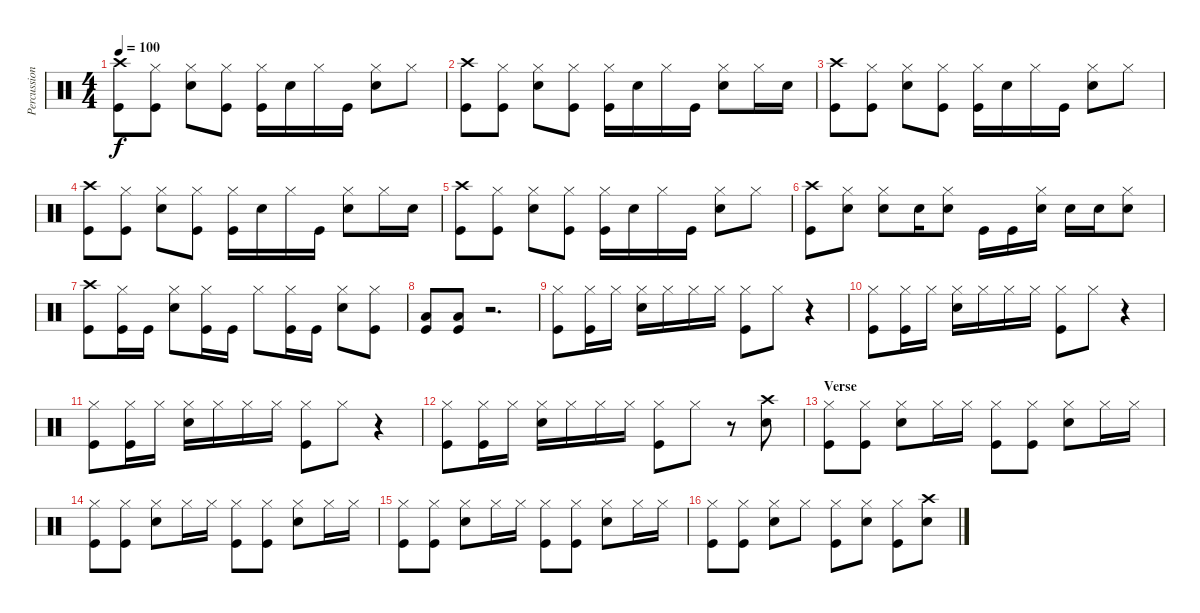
\track ("Percussion" "Percussion") {instrument percussion}
\staff {score}
\articulation defaults
\ts (4 4)
\tempo 100
\clef neutral
\ks c
("Crash high (hit)" "Kick (hit)").8{dy f} ("Hi-Hat (closed)" "Kick (hit)").8 ("Hi-Hat (closed)" "Snare (hit) 2").8 ("Hi-Hat (closed)" "Kick (hit)").8 ("Hi-Hat (closed)" "Kick (hit)").16 "Snare (hit) 2".16 "Hi-Hat (closed)".16 "Kick (hit)".16 ("Hi-Hat (closed)" "Snare (hit) 2").8 "Hi-Hat (closed)".8 |
("Crash high (hit)" "Kick (hit)").8 ("Hi-Hat (closed)" "Kick (hit)").8 ("Hi-Hat (closed)" "Snare (hit) 2").8 ("Hi-Hat (closed)" "Kick (hit)").8 ("Hi-Hat (closed)" "Kick (hit)").16 "Snare (hit) 2".16 "Hi-Hat (closed)".16 "Kick (hit)".16 ("Hi-Hat (closed)" "Snare (hit) 2").8 "Hi-Hat (closed)".16 "Snare (hit) 2".16 |
("Crash high (hit)" "Kick (hit)").8 ("Hi-Hat (closed)" "Kick (hit)").8 ("Hi-Hat (closed)" "Snare (hit) 2").8 ("Hi-Hat (closed)" "Kick (hit)").8 ("Hi-Hat (closed)" "Kick (hit)").16 "Snare (hit) 2".16 "Hi-Hat (closed)".16 "Kick (hit)".16 ("Hi-Hat (closed)" "Snare (hit) 2").8 "Hi-Hat (closed)".8 |
("Crash high (hit)" "Kick (hit)").8 ("Hi-Hat (closed)" "Kick (hit)").8 ("Hi-Hat (closed)" "Snare (hit) 2").8 ("Hi-Hat (closed)" "Kick (hit)").8 ("Hi-Hat (closed)" "Kick (hit)").16 "Snare (hit) 2".16 "Hi-Hat (closed)".16 "Kick (hit)".16 ("Hi-Hat (closed)" "Snare (hit) 2").8 "Hi-Hat (closed)".16 "Snare (hit) 2".16 |
("Crash high (hit)" "Kick (hit)").8 ("Hi-Hat (closed)" "Kick (hit)").8 ("Hi-Hat (closed)" "Snare (hit) 2").8 ("Hi-Hat (closed)" "Kick (hit)").8 ("Hi-Hat (closed)" "Kick (hit)").16 "Snare (hit) 2".16 "Hi-Hat (closed)".16 "Kick (hit)".16 ("Hi-Hat (closed)" "Snare (hit) 2").8 "Hi-Hat (closed)".8 |
("Crash high (hit)" "Kick (hit)").8 ("Hi-Hat (closed)" "Snare (hit) 2").8 ("Hi-Hat (closed)" "Snare (hit) 2").8 "Snare (hit) 2".16 ("Hi-Hat (closed)" "Snare (hit) 2").8 "Kick (hit)".16 "Kick (hit)".16 ("Hi-Hat (closed)" "Electric Snare (hit)").16 "Electric Snare (hit)".16 "Snare (hit) 2".16 ("Hi-Hat (closed)" "Electric Snare (hit)").8 |
("Crash high (hit)" "Kick (hit)").8 ("Hi-Hat (closed)" "Kick (hit)").16 "Kick (hit)".16 ("Hi-Hat (closed)" "Snare (hit) 2").8 ("Hi-Hat (closed)" "Kick (hit)").16 "Kick (hit)".16 "Hi-Hat (closed)".8 ("Hi-Hat (closed)" "Kick (hit)").16 "Kick (hit)".16 ("Hi-Hat (closed)" "Snare (hit) 2").8 ("Hi-Hat (closed)" "Kick (hit)").8 |
("Low Tom (hit)" "Kick (hit)").8 ("Low Tom (hit)" "Kick (hit)").8 r.2{d} |
("Hi-Hat (closed)" "Kick (hit)").8 ("Hi-Hat (closed)" "Kick (hit)").16 "Hi-Hat (closed)".16 ("Hi-Hat (closed)" "Snare (hit) 2").16 "Hi-Hat (closed)".16 "Hi-Hat (closed)".16 "Hi-Hat (closed)".16 ("Hi-Hat (closed)" "Kick (hit)").8 "Hi-Hat (closed)".8 r.4 |
("Hi-Hat (closed)" "Kick (hit)").8 ("Hi-Hat (closed)" "Kick (hit)").16 "Hi-Hat (closed)".16 ("Hi-Hat (closed)" "Snare (hit) 2").16 "Hi-Hat (closed)".16 "Hi-Hat (closed)".16 "Hi-Hat (closed)".16 ("Hi-Hat (closed)" "Kick (hit)").8 "Hi-Hat (closed)".8 r.4 |
("Hi-Hat (closed)" "Kick (hit)").8 ("Hi-Hat (closed)" "Kick (hit)").16 "Hi-Hat (closed)".16 ("Hi-Hat (closed)" "Snare (hit) 2").16 "Hi-Hat (closed)".16 "Hi-Hat (closed)".16 "Hi-Hat (closed)".16 ("Hi-Hat (closed)" "Kick (hit)").8 "Hi-Hat (closed)".8 r.4 |
("Hi-Hat (closed)" "Kick (hit)").8 ("Hi-Hat (closed)" "Kick (hit)").16 "Hi-Hat (closed)".16 ("Hi-Hat (closed)" "Snare (hit) 2").16 "Hi-Hat (closed)".16 "Hi-Hat (closed)".16 "Hi-Hat (closed)".16 ("Hi-Hat (closed)" "Kick (hit)").8 "Hi-Hat (closed)".8 r.8 ("Crash high (hit)" "Snare (hit) 2").8 |
\section ("" "Verse")
("Hi-Hat (closed)" "Kick (hit)").8 ("Hi-Hat (closed)" "Kick (hit)").8 ("Hi-Hat (closed)" "Snare (hit) 2").8 "Hi-Hat (closed)".16 "Hi-Hat (closed)".16 ("Hi-Hat (closed)" "Kick (hit)").8 ("Hi-Hat (closed)" "Kick (hit)").8 ("Hi-Hat (closed)" "Snare (hit) 2").8 "Hi-Hat (closed)".16 "Hi-Hat (closed)".16 |
("Hi-Hat (closed)" "Kick (hit)").8 ("Hi-Hat (closed)" "Kick (hit)").8 ("Hi-Hat (closed)" "Snare (hit) 2").8 "Hi-Hat (closed)".16 "Hi-Hat (closed)".16 ("Hi-Hat (closed)" "Kick (hit)").8 ("Hi-Hat (closed)" "Kick (hit)").8 ("Hi-Hat (closed)" "Snare (hit) 2").8 "Hi-Hat (closed)".16 "Hi-Hat (closed)".16 |
("Hi-Hat (closed)" "Kick (hit)").8 ("Hi-Hat (closed)" "Kick (hit)").8 ("Hi-Hat (closed)" "Snare (hit) 2").8 "Hi-Hat (closed)".16 "Hi-Hat (closed)".16 ("Hi-Hat (closed)" "Kick (hit)").8 ("Hi-Hat (closed)" "Kick (hit)").8 ("Hi-Hat (closed)" "Snare (hit) 2").8 "Hi-Hat (closed)".16 "Hi-Hat (closed)".16 |
("Hi-Hat (closed)" "Kick (hit)").8 ("Hi-Hat (closed)" "Kick (hit)").8 ("Hi-Hat (closed)" "Snare (hit) 2").8 "Hi-Hat (closed)".8 ("Hi-Hat (closed)" "Kick (hit)").8 ("Hi-Hat (closed)" "Snare (hit) 2").8 ("Hi-Hat (closed)" "Kick (hit)").8 ("Crash high (hit)" "Snare (hit) 2").8
